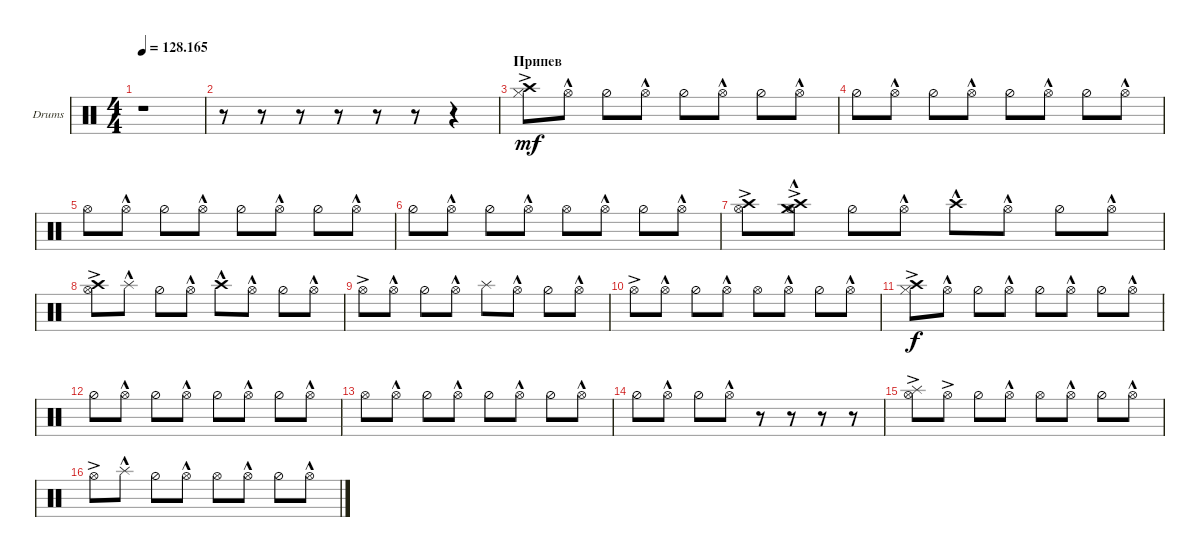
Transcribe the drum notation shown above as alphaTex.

\defaultSystemsLayout 4
\bracketExtendMode groupsimilarinstruments
\firstSystemTrackNameOrientation horizontal
\otherSystemsTrackNameOrientation horizontal
\track ("Drumkit" "Drums") {instrument percussion}
\staff {score}
\articulation defaults
\ts (4 4)
\tempo
128.165
\accidentals auto
\clef neutral
\ottava regular
\simile none
\ks c
r.1{dy mf} |
r.8 r.8 r.8 r.8 r.8 r.8 r.4 |
\section ("" "Припев")
("Hi-Hat (closed)" "Crash high (hit)"{ac}).8 "Hi-Hat (open)"{hac}.8 "Hi-Hat (half)".8 "Hi-Hat (open)"{hac}.8 "Hi-Hat (half)".8 "Hi-Hat (open)"{hac}.8 "Hi-Hat (half)".8 "Hi-Hat (open)"{hac}.8 |
"Hi-Hat (half)".8 "Hi-Hat (open)"{hac}.8 "Hi-Hat (half)".8 "Hi-Hat (open)"{hac}.8 "Hi-Hat (half)".8 "Hi-Hat (open)"{hac}.8 "Hi-Hat (half)".8 "Hi-Hat (open)"{hac}.8 |
"Hi-Hat (open)".8 "Hi-Hat (open)"{hac}.8 "Hi-Hat (half)".8 "Hi-Hat (open)"{hac}.8 "Hi-Hat (half)".8 "Hi-Hat (open)"{hac}.8 "Hi-Hat (half)".8 "Hi-Hat (open)"{hac}.8 |
"Hi-Hat (half)".8 "Hi-Hat (open)"{hac}.8 "Hi-Hat (half)".8 "Hi-Hat (open)"{hac}.8 "Hi-Hat (open)".8 "Hi-Hat (open)"{hac}.8 "Hi-Hat (half)".8 "Hi-Hat (open)"{hac}.8 |
("Hi-Hat (open)"{ac} "Crash high (hit)"{ac}).8 ("Hi-Hat (open)"{ac} "Crash medium (hit)"{hac} "Crash high (hit)"{ac}).8 "Hi-Hat (half)".8 "Hi-Hat (open)"{hac}.8 "Crash high (hit)"{hac}.8 "Hi-Hat (open)"{hac}.8 "Hi-Hat (half)".8 "Hi-Hat (open)"{hac}.8 |
("Hi-Hat (open)"{ac} "Crash high (hit)"{ac}).8 "Splash (hit)"{hac}.8 "Hi-Hat (half)".8 "Hi-Hat (open)"{hac}.8 "Crash high (hit)"{hac}.8 "Hi-Hat (open)"{hac}.8 "Hi-Hat (half)".8 "Hi-Hat (open)"{hac}.8 |
"Hi-Hat (open)"{ac}.8 "Hi-Hat (open)"{hac}.8 "Hi-Hat (half)".8 "Hi-Hat (open)"{hac}.8 "Splash (hit)".8 "Hi-Hat (open)"{hac}.8 "Hi-Hat (half)".8 "Hi-Hat (open)"{hac}.8 |
"Hi-Hat (open)"{ac}.8 "Hi-Hat (open)"{hac}.8 "Hi-Hat (half)".8 "Hi-Hat (open)"{hac}.8 "Hi-Hat (open)".8 "Hi-Hat (open)"{hac}.8 "Hi-Hat (half)".8 "Hi-Hat (open)"{hac}.8 |
("Hi-Hat (closed)" "Crash high (hit)"{ac}).8{dy f} "Hi-Hat (open)"{hac}.8 "Hi-Hat (half)".8 "Hi-Hat (open)"{hac}.8 "Hi-Hat (half)".8 "Hi-Hat (open)"{hac}.8 "Hi-Hat (half)".8 "Hi-Hat (open)"{hac}.8 |
"Hi-Hat (half)".8 "Hi-Hat (open)"{hac}.8 "Hi-Hat (half)".8 "Hi-Hat (open)"{hac}.8 "Hi-Hat (half)".8 "Hi-Hat (open)"{hac}.8 "Hi-Hat (half)".8 "Hi-Hat (open)"{hac}.8 |
"Hi-Hat (open)".8 "Hi-Hat (open)"{hac}.8 "Hi-Hat (half)".8 "Hi-Hat (open)"{hac}.8 "Hi-Hat (half)".8 "Hi-Hat (open)"{hac}.8 "Hi-Hat (half)".8 "Hi-Hat (open)"{hac}.8 |
"Hi-Hat (half)".8 "Hi-Hat (open)"{hac}.8 "Hi-Hat (half)".8 "Hi-Hat (open)"{hac}.8 r.8 r.8 r.8 r.8 |
("Hi-Hat (open)"{ac} "Splash (hit)").8 "Hi-Hat (open)"{ac}.8 "Hi-Hat (half)".8 "Hi-Hat (open)"{hac}.8 "Hi-Hat (open)".8 "Hi-Hat (open)"{hac}.8 "Hi-Hat (half)".8 "Hi-Hat (open)"{hac}.8 |
"Hi-Hat (open)"{ac}.8 "Splash (hit)"{hac}.8 "Hi-Hat (half)".8 "Hi-Hat (open)"{hac}.8 "Hi-Hat (open)".8 "Hi-Hat (open)"{hac}.8 "Hi-Hat (half)".8 "Hi-Hat (open)"{hac}.8
